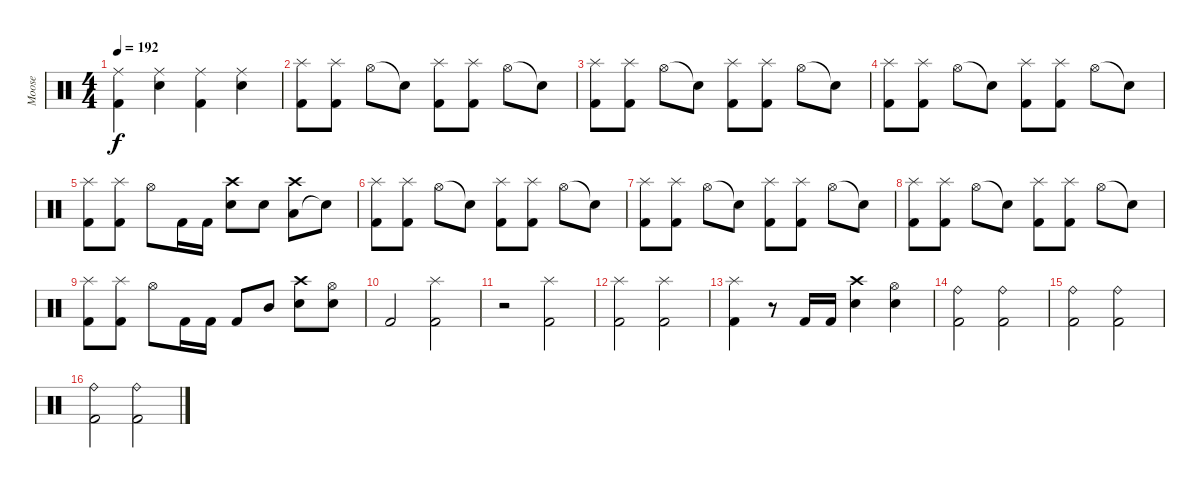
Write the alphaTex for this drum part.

\track ("Moose" "Moose") {instrument percussion}
\staff {score}
\articulation defaults
\ts (4 4)
\tempo 192
\clef neutral
\ks c
("Kick (hit) 2" "Ride (middle)").4{dy f} ("Snare (hit) 2" "Ride (middle)").4 ("Kick (hit) 2" "Ride (middle)").4 ("Snare (hit) 2" "Ride (middle)").4 |
("Kick (hit) 2" "Splash (hit)").8 ("Kick (hit) 2" "Splash (hit)").8 "Hi-Hat (open)".8 "Snare (hit)"{t}.8 ("Kick (hit) 2" "Splash (hit)").8 ("Kick (hit) 2" "Splash (hit)").8 "Hi-Hat (open)".8 "Snare (hit)"{t}.8 |
("Kick (hit) 2" "Splash (hit)").8 ("Kick (hit) 2" "Splash (hit)").8 "Hi-Hat (open)".8 "Snare (hit)"{t}.8 ("Kick (hit) 2" "Splash (hit)").8 ("Kick (hit) 2" "Splash (hit)").8 "Hi-Hat (open)".8 "Snare (hit)"{t}.8 |
("Kick (hit) 2" "Splash (hit)").8 ("Kick (hit) 2" "Splash (hit)").8 "Hi-Hat (open)".8 "Snare (hit)"{t}.8 ("Kick (hit) 2" "Splash (hit)").8 ("Kick (hit) 2" "Splash (hit)").8 "Hi-Hat (open)".8 "Snare (hit)"{t}.8 |
("Kick (hit) 2" "Splash (hit)").8 ("Kick (hit) 2" "Splash (hit)").8 "Hi-Hat (open)".8 "Kick (hit) 2".16 "Kick (hit) 2".16 ("Electric Snare (hit)" "Crash high (hit)").8 "Electric Snare (hit)".8 ("Low Tom (hit)" "Crash high (hit)").8 "Snare (hit)"{t}.8 |
("Kick (hit) 2" "Splash (hit)").8 ("Kick (hit) 2" "Splash (hit)").8 "Hi-Hat (open)".8 "Snare (hit)"{t}.8 ("Kick (hit) 2" "Splash (hit)").8 ("Kick (hit) 2" "Splash (hit)").8 "Hi-Hat (open)".8 "Snare (hit)"{t}.8 |
("Kick (hit) 2" "Splash (hit)").8 ("Kick (hit) 2" "Splash (hit)").8 "Hi-Hat (open)".8 "Snare (hit)"{t}.8 ("Kick (hit) 2" "Splash (hit)").8 ("Kick (hit) 2" "Splash (hit)").8 "Hi-Hat (open)".8 "Snare (hit)"{t}.8 |
("Kick (hit) 2" "Splash (hit)").8 ("Kick (hit) 2" "Splash (hit)").8 "Hi-Hat (open)".8 "Snare (hit)"{t}.8 ("Kick (hit) 2" "Splash (hit)").8 ("Kick (hit) 2" "Splash (hit)").8 "Hi-Hat (open)".8 "Snare (hit)"{t}.8 |
("Kick (hit) 2" "Splash (hit)").8 ("Kick (hit) 2" "Splash (hit)").8 "Hi-Hat (open)".8 "Kick (hit) 2".16 "Kick (hit) 2".16 "Kick (hit) 2".8 "Mid Tom (hit)".8 ("Electric Snare (hit)" "Crash high (hit)").8 ("Electric Snare (hit)" "Hi-Hat (open)").8 |
"Kick (hit) 2".2 ("Kick (hit) 2" "Splash (hit)").2 |
r.2 ("Kick (hit) 2" "Splash (hit)").2 |
("Kick (hit) 2" "Splash (hit)").2 ("Kick (hit) 2" "Splash (hit)").2 |
("Kick (hit) 2" "Splash (hit)").4 r.8 "Kick (hit) 2".16 "Kick (hit) 2".16 ("Electric Snare (hit)" "Crash high (hit)").4 ("Snare (hit) 2" "Hi-Hat (open)").4 |
("Kick (hit) 2" "Ride (bell)").2 ("Kick (hit) 2" "Ride (bell)").2 |
("Kick (hit) 2" "Ride (bell)").2 ("Kick (hit) 2" "Ride (bell)").2 |
("Kick (hit) 2" "Ride (bell)").2 ("Kick (hit) 2" "Ride (bell)").2
